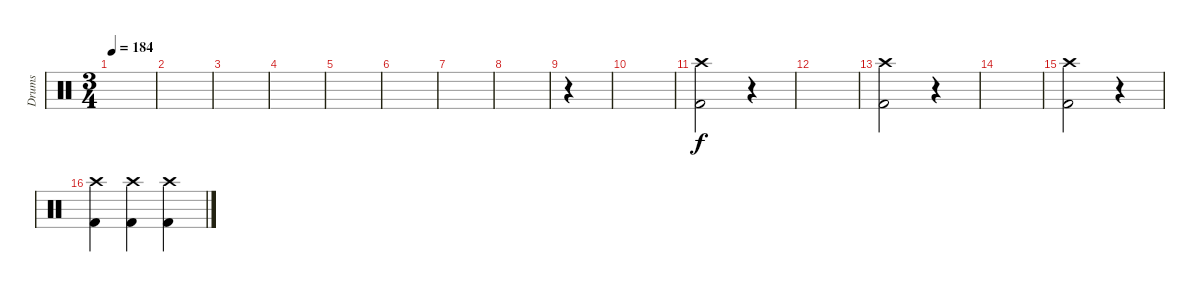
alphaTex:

\track ("Drums" "Drums") {instrument percussion}
\staff {score}
\articulation defaults
\ts (3 4)
\tempo 184
\clef neutral
\ks c
|
|
|
|
|
|
|
|
r.4 |
|
("Crash high (hit)" "Kick (hit) 2").2 r.4 |
|
("Crash high (hit)" "Kick (hit) 2").2 r.4 |
|
("Crash high (hit)" "Kick (hit) 2").2 r.4 |
("Crash high (hit)" "Kick (hit) 2").4 ("Crash high (hit)" "Kick (hit) 2").4 ("Crash high (hit)" "Kick (hit) 2").4
